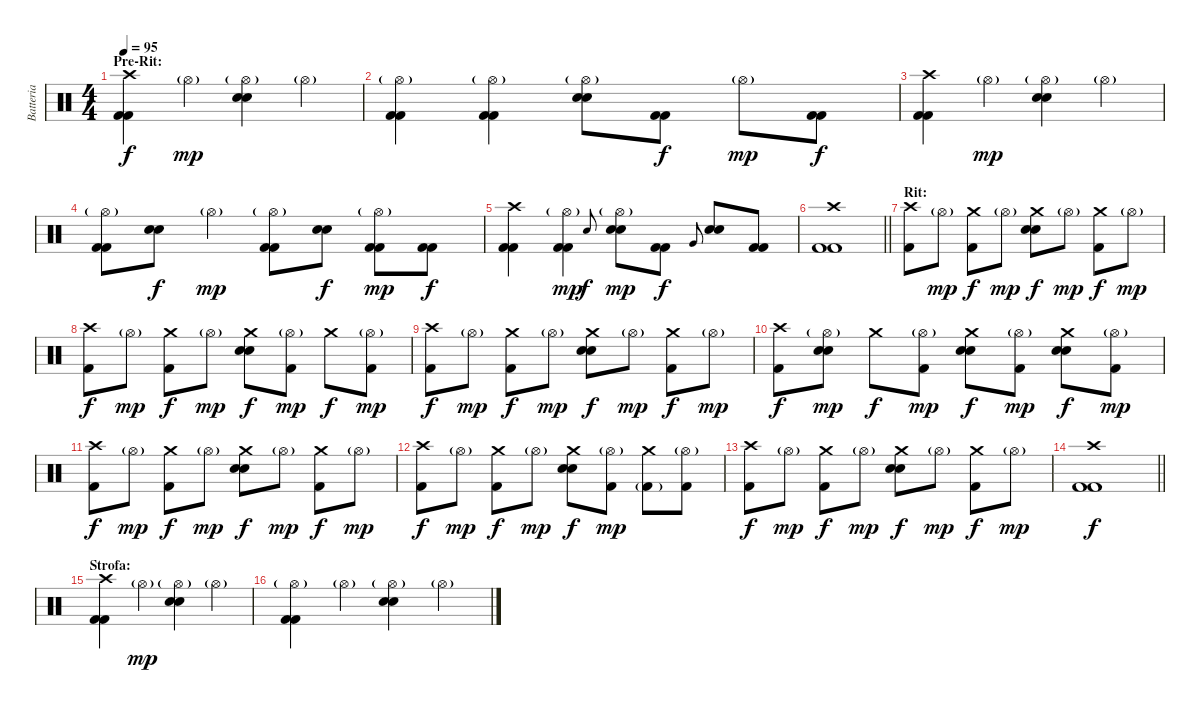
\track ("Batteria" "Batteria") {instrument percussion}
\staff {score}
\articulation defaults
\ts (4 4)
\section ("" "Pre-Rit:")
\tempo 95
\clef neutral
\ks c
("Kick (hit) 2" "Kick (hit) 2" "Crash high (hit)").4{dy f} "Hi-Hat (open)"{g}.4{dy mp} ("Snare (hit) 2" "Snare (hit) 2" "Hi-Hat (open)"{g}).4 "Hi-Hat (open)"{g}.4 |
("Kick (hit) 2" "Kick (hit) 2" "Hi-Hat (open)"{g}).4 ("Kick (hit) 2" "Kick (hit) 2" "Hi-Hat (open)"{g}).4 ("Snare (hit) 2" "Snare (hit) 2" "Hi-Hat (open)"{g}).8 ("Kick (hit) 2" "Kick (hit) 2").8{dy f} "Hi-Hat (open)"{g}.8{dy mp} ("Kick (hit) 2" "Kick (hit) 2").8{dy f} |
("Kick (hit) 2" "Kick (hit) 2" "Crash high (hit)").4 "Hi-Hat (open)"{g}.4{dy mp} ("Snare (hit) 2" "Snare (hit) 2" "Hi-Hat (open)"{g}).4 "Hi-Hat (open)"{g}.4 |
("Kick (hit) 2" "Kick (hit) 2" "Hi-Hat (open)"{g}).8 ("Snare (hit) 2" "Snare (hit) 2").8{dy f} "Hi-Hat (open)"{g}.4{dy mp} ("Kick (hit) 2" "Kick (hit) 2" "Hi-Hat (open)"{g}).8 ("Snare (hit) 2" "Snare (hit) 2").8{dy f} ("Kick (hit) 2" "Kick (hit) 2" "Hi-Hat (open)"{g}).8{dy mp} ("Kick (hit) 2" "Kick (hit) 2").8{dy f} |
("Kick (hit) 2" "Kick (hit) 2" "Crash high (hit)").4 ("Kick (hit) 2" "Kick (hit) 2" "Hi-Hat (open)"{g}).4{dy mp} "Snare (hit) 2".8{gr onbeat dy f} ("Snare (hit) 2" "Snare (hit) 2" "Hi-Hat (open)"{g}).8{dy mp} ("Kick (hit) 2" "Kick (hit) 2").8{dy f} "Very Low Tom (hit)".8{gr onbeat} ("Snare (hit) 2" "Snare (hit) 2").8 ("Kick (hit) 2" "Kick (hit) 2").8 |
\barLineRight lightlight
("Kick (hit) 2" "Kick (hit) 2" "Crash high (hit)").1 |
\section ("" "Rit:")
("Kick (hit) 2" "Crash high (hit)").8 "Hi-Hat (open)"{g}.8{dy mp} ("Kick (hit) 2" "Crash medium (hit)").8{dy f} "Hi-Hat (open)"{g}.8{dy mp} ("Snare (hit) 2" "Snare (hit) 2" "Crash medium (hit)").8{dy f} "Hi-Hat (open)"{g}.8{dy mp} ("Kick (hit) 2" "Crash medium (hit)").8{dy f} "Hi-Hat (open)"{g}.8{dy mp} |
("Kick (hit) 2" "Crash high (hit)").8{dy f} "Hi-Hat (open)"{g}.8{dy mp} ("Kick (hit) 2" "Crash medium (hit)").8{dy f} "Hi-Hat (open)"{g}.8{dy mp} ("Snare (hit) 2" "Snare (hit) 2" "Crash medium (hit)").8{dy f} ("Kick (hit) 2" "Hi-Hat (open)"{g}).8{dy mp} "Crash medium (hit)".8{dy f} ("Kick (hit) 2" "Hi-Hat (open)"{g}).8{dy mp} |
("Kick (hit) 2" "Crash high (hit)").8{dy f} "Hi-Hat (open)"{g}.8{dy mp} ("Kick (hit) 2" "Crash medium (hit)").8{dy f} "Hi-Hat (open)"{g}.8{dy mp} ("Snare (hit) 2" "Snare (hit) 2" "Crash medium (hit)").8{dy f} "Hi-Hat (open)"{g}.8{dy mp} ("Kick (hit) 2" "Crash medium (hit)").8{dy f} "Hi-Hat (open)"{g}.8{dy mp} |
("Kick (hit) 2" "Crash high (hit)").8{dy f} ("Snare (hit) 2" "Snare (hit) 2" "Hi-Hat (open)"{g}).8{dy mp} "Crash medium (hit)".8{dy f} ("Kick (hit) 2" "Hi-Hat (open)"{g}).8{dy mp} ("Snare (hit) 2" "Snare (hit) 2" "Crash medium (hit)").8{dy f} ("Kick (hit) 2" "Hi-Hat (open)"{g}).8{dy mp} ("Snare (hit) 2" "Snare (hit) 2" "Crash medium (hit)").8{dy f} ("Kick (hit) 2" "Hi-Hat (open)"{g}).8{dy mp} |
("Kick (hit) 2" "Crash high (hit)").8{dy f} "Hi-Hat (open)"{g}.8{dy mp} ("Kick (hit) 2" "Crash medium (hit)").8{dy f} "Hi-Hat (open)"{g}.8{dy mp} ("Snare (hit) 2" "Snare (hit) 2" "Crash medium (hit)").8{dy f} "Hi-Hat (open)"{g}.8{dy mp} ("Kick (hit) 2" "Crash medium (hit)").8{dy f} "Hi-Hat (open)"{g}.8{dy mp} |
("Kick (hit) 2" "Crash high (hit)").8{dy f} "Hi-Hat (open)"{g}.8{dy mp} ("Kick (hit) 2" "Crash medium (hit)").8{dy f} "Hi-Hat (open)"{g}.8{dy mp} ("Snare (hit) 2" "Snare (hit) 2" "Crash medium (hit)").8{dy f} ("Kick (hit) 2" "Hi-Hat (open)"{g}).8{dy mp} ("Kick (hit) 2"{g} "Crash medium (hit)").8 ("Kick (hit) 2" "Hi-Hat (open)"{g}).8 |
("Kick (hit) 2" "Crash high (hit)").8{dy f} "Hi-Hat (open)"{g}.8{dy mp} ("Kick (hit) 2" "Crash medium (hit)").8{dy f} "Hi-Hat (open)"{g}.8{dy mp} ("Snare (hit) 2" "Snare (hit) 2" "Crash medium (hit)").8{dy f} "Hi-Hat (open)"{g}.8{dy mp} ("Kick (hit) 2" "Crash medium (hit)").8{dy f} "Hi-Hat (open)"{g}.8{dy mp} |
\barLineRight lightlight
("Kick (hit) 2" "Kick (hit) 2" "Crash high (hit)").1{dy f} |
\section ("" "Strofa:")
("Kick (hit) 2" "Kick (hit) 2" "Crash high (hit)").4 "Hi-Hat (open)"{g}.4{dy mp} ("Snare (hit) 2" "Snare (hit) 2" "Hi-Hat (open)"{g}).4 "Hi-Hat (open)"{g}.4 |
("Kick (hit) 2" "Kick (hit) 2" "Hi-Hat (open)"{g}).4 "Hi-Hat (open)"{g}.4 ("Snare (hit) 2" "Snare (hit) 2" "Hi-Hat (open)"{g}).4 "Hi-Hat (open)"{g}.4
